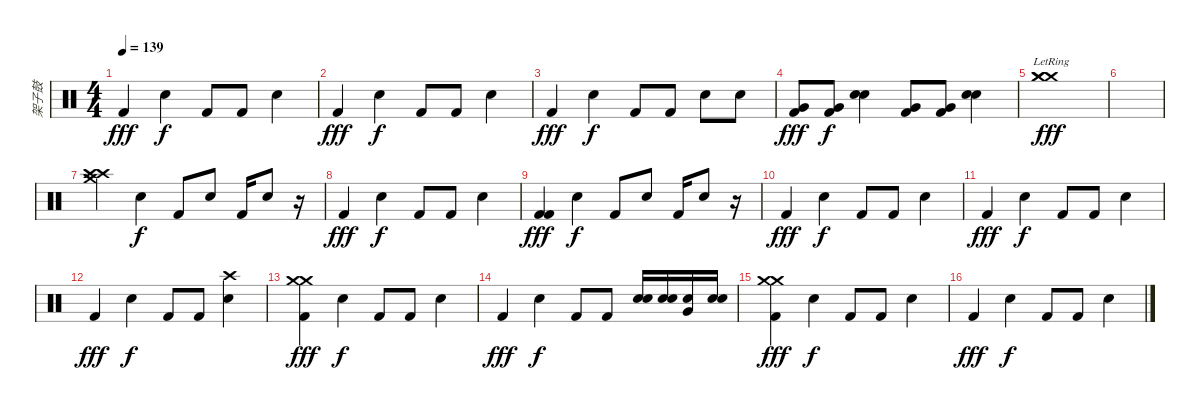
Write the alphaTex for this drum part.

\track ("架子鼓" "架子鼓") {instrument percussion}
\staff {score}
\articulation defaults
\ts (4 4)
\tempo 139
\clef neutral
\ks c "Kick (hit) 2".4{dy fff} "Electric Snare (hit)".4{dy f} "Kick (hit) 2".8 "Kick (hit) 2".8 "Electric Snare (hit)".4
|
"Kick (hit) 2".4{dy fff} "Electric Snare (hit)".4{dy f} "Kick (hit) 2".8 "Kick (hit) 2".8 "Electric Snare (hit)".4 |
"Kick (hit) 2".4{dy fff} "Electric Snare (hit)".4{dy f} "Kick (hit) 2".8 "Kick (hit) 2".8 "Electric Snare (hit)".8 "Electric Snare (hit)".8 |
("Very Low Tom (hit)" "Kick (hit) 2").8{dy fff} ("Kick (hit) 2" "Very Low Tom (hit)").8{dy f} ("Electric Snare (hit)" "Electric Snare (hit)").4 ("Very Low Tom (hit)" "Kick (hit) 2").8 ("Very Low Tom (hit)" "Kick (hit) 2").8 ("Electric Snare (hit)" "Electric Snare (hit)").4 |
("Crash medium (hit)"{lr} "Crash medium (hit)"{lr} "Crash medium (hit)"{lr}).1{dy fff} |
|
("Crash high (hit)" "Crash medium (hit)" "Crash high (hit)").4 "Electric Snare (hit)".4{dy f} "Kick (hit) 2".8 "Electric Snare (hit)".8 "Kick (hit) 2".16 "Electric Snare (hit)".8 r.16 |
"Kick (hit) 2".4{dy fff} "Electric Snare (hit)".4{dy f} "Kick (hit) 2".8 "Kick (hit) 2".8 "Electric Snare (hit)".4 |
("Kick (hit) 2" "Kick (hit) 2").4{dy fff} "Electric Snare (hit)".4{dy f} "Kick (hit) 2".8 "Electric Snare (hit)".8 "Kick (hit) 2".16 "Electric Snare (hit)".8 r.16 |
"Kick (hit) 2".4{dy fff} "Electric Snare (hit)".4{dy f} "Kick (hit) 2".8 "Kick (hit) 2".8 "Electric Snare (hit)".4 |
"Kick (hit) 2".4{dy fff} "Electric Snare (hit)".4{dy f} "Kick (hit) 2".8 "Kick (hit) 2".8 "Electric Snare (hit)".4 |
"Kick (hit) 2".4{dy fff} "Electric Snare (hit)".4{dy f} "Kick (hit) 2".8 "Kick (hit) 2".8 ("Electric Snare (hit)" "Crash high (hit)").4 |
("Kick (hit) 2" "Crash medium (hit)" "Crash medium (hit)").4{dy fff} "Electric Snare (hit)".4{dy f} "Kick (hit) 2".8 "Kick (hit) 2".8 "Electric Snare (hit)".4 |
"Kick (hit) 2".4{dy fff} "Electric Snare (hit)".4{dy f} "Kick (hit) 2".8 "Kick (hit) 2".8 ("Electric Snare (hit)" "Electric Snare (hit)").16 ("Electric Snare (hit)" "Electric Snare (hit)").16 ("Electric Snare (hit)" "Very Low Tom (hit)").16 ("Electric Snare (hit)" "Electric Snare (hit)").16 |
("Kick (hit) 2" "Crash medium (hit)" "Crash medium (hit)").4{dy fff} "Electric Snare (hit)".4{dy f} "Kick (hit) 2".8 "Kick (hit) 2".8 "Electric Snare (hit)".4 |
"Kick (hit) 2".4{dy fff} "Electric Snare (hit)".4{dy f} "Kick (hit) 2".8 "Kick (hit) 2".8 "Electric Snare (hit)".4
